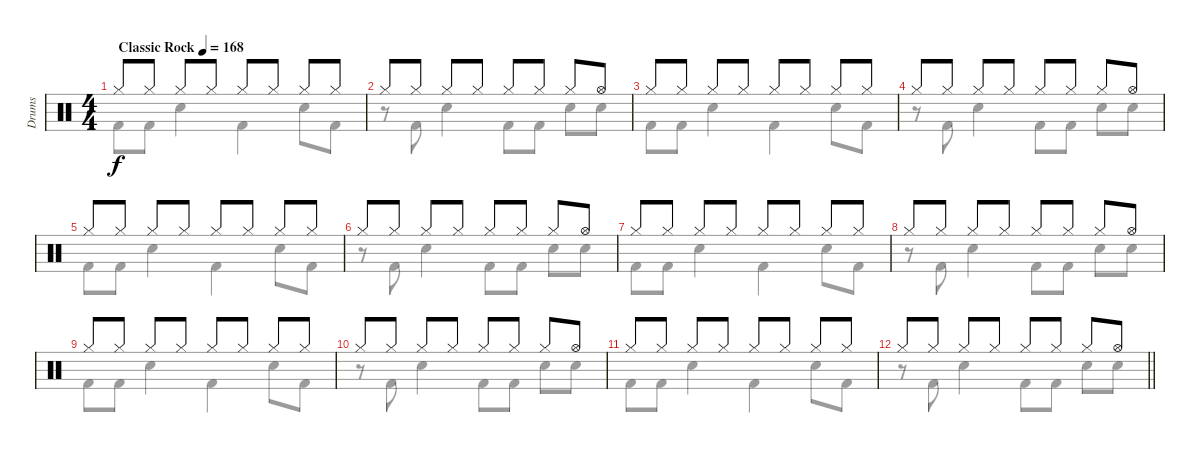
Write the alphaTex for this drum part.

\track ("Drums" "Drums") {instrument percussion}
\staff {score}
\articulation defaults
\voice
\ts (4 4)
\tempo (168 "Classic Rock")
\clef neutral
\ks c "Hi-Hat (closed)".8{dy f} "Hi-Hat (closed)".8 "Hi-Hat (closed)".8 "Hi-Hat (closed)".8 "Hi-Hat (closed)".8 "Hi-Hat (closed)".8 "Hi-Hat (closed)".8 "Hi-Hat (closed)".8
|
"Hi-Hat (closed)".8 "Hi-Hat (closed)".8 "Hi-Hat (closed)".8 "Hi-Hat (closed)".8 "Hi-Hat (closed)".8 "Hi-Hat (closed)".8 "Hi-Hat (closed)".8 "Hi-Hat (open)".8 |
"Hi-Hat (closed)".8 "Hi-Hat (closed)".8 "Hi-Hat (closed)".8 "Hi-Hat (closed)".8 "Hi-Hat (closed)".8 "Hi-Hat (closed)".8 "Hi-Hat (closed)".8 "Hi-Hat (closed)".8 |
"Hi-Hat (closed)".8 "Hi-Hat (closed)".8 "Hi-Hat (closed)".8 "Hi-Hat (closed)".8 "Hi-Hat (closed)".8 "Hi-Hat (closed)".8 "Hi-Hat (closed)".8 "Hi-Hat (open)".8 |
"Hi-Hat (closed)".8 "Hi-Hat (closed)".8 "Hi-Hat (closed)".8 "Hi-Hat (closed)".8 "Hi-Hat (closed)".8 "Hi-Hat (closed)".8 "Hi-Hat (closed)".8 "Hi-Hat (closed)".8 |
"Hi-Hat (closed)".8 "Hi-Hat (closed)".8 "Hi-Hat (closed)".8 "Hi-Hat (closed)".8 "Hi-Hat (closed)".8 "Hi-Hat (closed)".8 "Hi-Hat (closed)".8 "Hi-Hat (open)".8 |
"Hi-Hat (closed)".8 "Hi-Hat (closed)".8 "Hi-Hat (closed)".8 "Hi-Hat (closed)".8 "Hi-Hat (closed)".8 "Hi-Hat (closed)".8 "Hi-Hat (closed)".8 "Hi-Hat (closed)".8 |
"Hi-Hat (closed)".8 "Hi-Hat (closed)".8 "Hi-Hat (closed)".8 "Hi-Hat (closed)".8 "Hi-Hat (closed)".8 "Hi-Hat (closed)".8 "Hi-Hat (closed)".8 "Hi-Hat (open)".8 |
"Hi-Hat (closed)".8 "Hi-Hat (closed)".8 "Hi-Hat (closed)".8 "Hi-Hat (closed)".8 "Hi-Hat (closed)".8 "Hi-Hat (closed)".8 "Hi-Hat (closed)".8 "Hi-Hat (closed)".8 |
"Hi-Hat (closed)".8 "Hi-Hat (closed)".8 "Hi-Hat (closed)".8 "Hi-Hat (closed)".8 "Hi-Hat (closed)".8 "Hi-Hat (closed)".8 "Hi-Hat (closed)".8 "Hi-Hat (open)".8 |
"Hi-Hat (closed)".8 "Hi-Hat (closed)".8 "Hi-Hat (closed)".8 "Hi-Hat (closed)".8 "Hi-Hat (closed)".8 "Hi-Hat (closed)".8 "Hi-Hat (closed)".8 "Hi-Hat (closed)".8 |
\barLineRight lightlight "Hi-Hat (closed)".8{volume 0} "Hi-Hat (closed)".8 "Hi-Hat (closed)".8 "Hi-Hat (closed)".8 "Hi-Hat (closed)".8 "Hi-Hat (closed)".8 "Hi-Hat (closed)".8 "Hi-Hat (open)".8
\voice
\clef neutral
\ottava regular
\simile none
\ks c "Kick (hit) 2".8{dy f} "Kick (hit) 2".8 "Electric Snare (hit)".4 "Kick (hit) 2".4 "Electric Snare (hit)".8 "Kick (hit) 2".8
|
r.8 "Kick (hit) 2".8 "Electric Snare (hit)".4 "Kick (hit) 2".8 "Kick (hit) 2".8 "Electric Snare (hit)".8 "Electric Snare (hit)".8 |
"Kick (hit) 2".8 "Kick (hit) 2".8 "Electric Snare (hit)".4 "Kick (hit) 2".4 "Electric Snare (hit)".8 "Kick (hit) 2".8 |
r.8 "Kick (hit) 2".8 "Electric Snare (hit)".4 "Kick (hit) 2".8 "Kick (hit) 2".8 "Electric Snare (hit)".8 "Electric Snare (hit)".8 |
"Kick (hit) 2".8 "Kick (hit) 2".8 "Electric Snare (hit)".4 "Kick (hit) 2".4 "Electric Snare (hit)".8 "Kick (hit) 2".8 |
r.8 "Kick (hit) 2".8 "Electric Snare (hit)".4 "Kick (hit) 2".8 "Kick (hit) 2".8 "Electric Snare (hit)".8 "Electric Snare (hit)".8 |
"Kick (hit) 2".8 "Kick (hit) 2".8 "Electric Snare (hit)".4 "Kick (hit) 2".4 "Electric Snare (hit)".8 "Kick (hit) 2".8 |
r.8 "Kick (hit) 2".8 "Electric Snare (hit)".4 "Kick (hit) 2".8 "Kick (hit) 2".8 "Electric Snare (hit)".8 "Electric Snare (hit)".8 |
"Kick (hit) 2".8 "Kick (hit) 2".8 "Electric Snare (hit)".4 "Kick (hit) 2".4 "Electric Snare (hit)".8 "Kick (hit) 2".8 |
r.8 "Kick (hit) 2".8 "Electric Snare (hit)".4 "Kick (hit) 2".8 "Kick (hit) 2".8 "Electric Snare (hit)".8 "Electric Snare (hit)".8 |
"Kick (hit) 2".8 "Kick (hit) 2".8 "Electric Snare (hit)".4 "Kick (hit) 2".4 "Electric Snare (hit)".8 "Kick (hit) 2".8 |
\barLineRight lightlight
r.8 "Kick (hit) 2".8 "Electric Snare (hit)".4 "Kick (hit) 2".8 "Kick (hit) 2".8 "Electric Snare (hit)".8 "Electric Snare (hit)".8
